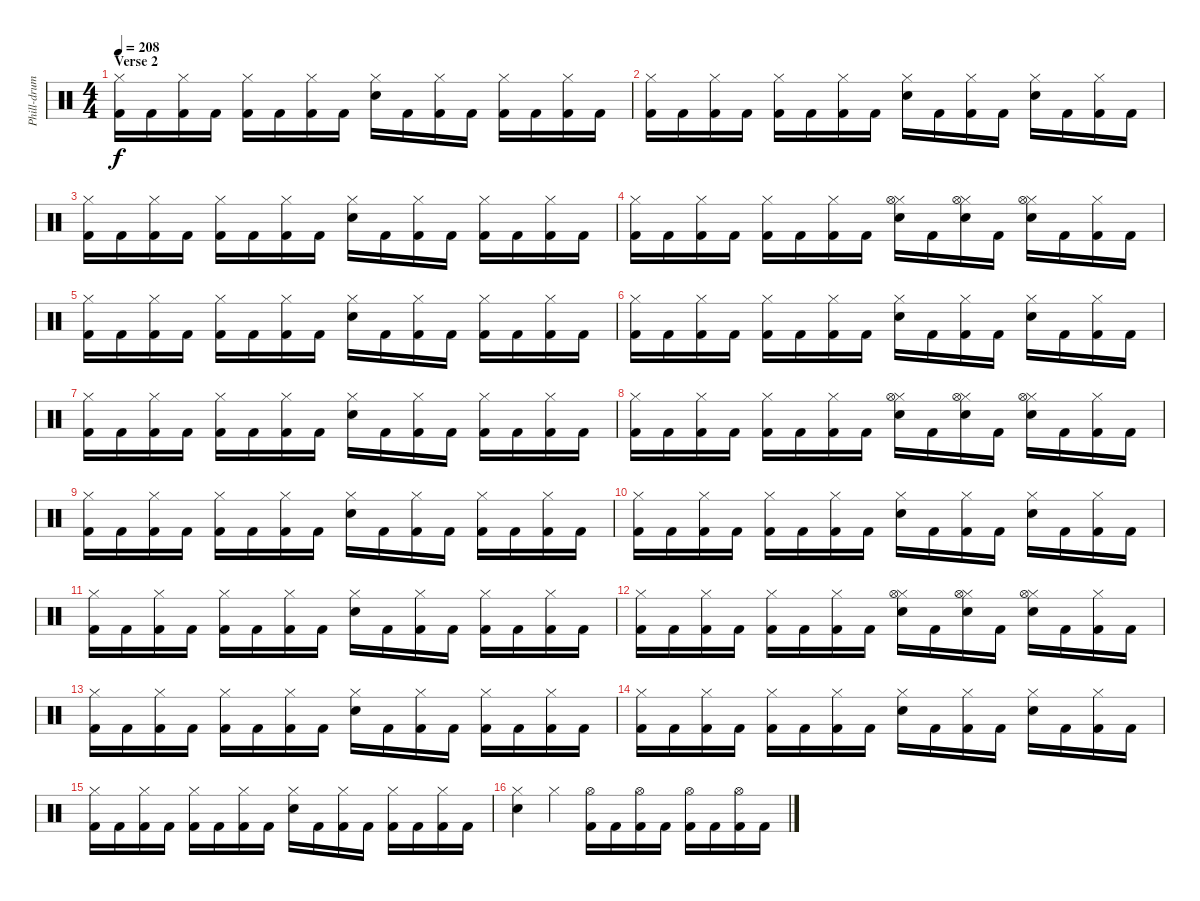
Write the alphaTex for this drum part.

\track ("Phill-drum" "Phill-drum") {instrument percussion}
\staff {score}
\articulation defaults
\ts (4 4)
\section ("" "Verse 2")
\tempo 208
\clef neutral
\ks c
("Hi-Hat (closed)" "Kick (hit) 2").16{dy f} "Kick (hit) 2".16 ("Hi-Hat (closed)" "Kick (hit) 2").16 "Kick (hit) 2".16 ("Hi-Hat (closed)" "Kick (hit) 2").16 "Kick (hit) 2".16 ("Hi-Hat (closed)" "Kick (hit) 2").16 "Kick (hit) 2".16 ("Hi-Hat (closed)" "Electric Snare (hit)").16 "Kick (hit) 2".16 ("Hi-Hat (closed)" "Kick (hit) 2").16 "Kick (hit) 2".16 ("Hi-Hat (closed)" "Kick (hit) 2").16 "Kick (hit) 2".16 ("Hi-Hat (closed)" "Kick (hit) 2").16 "Kick (hit) 2".16 |
("Hi-Hat (closed)" "Kick (hit) 2").16 "Kick (hit) 2".16 ("Hi-Hat (closed)" "Kick (hit) 2").16 "Kick (hit) 2".16 ("Hi-Hat (closed)" "Kick (hit) 2").16 "Kick (hit) 2".16 ("Hi-Hat (closed)" "Kick (hit) 2").16 "Kick (hit) 2".16 ("Hi-Hat (closed)" "Electric Snare (hit)").16 "Kick (hit) 2".16 ("Hi-Hat (closed)" "Kick (hit) 2").16 "Kick (hit) 2".16 ("Hi-Hat (closed)" "Electric Snare (hit)").16 "Kick (hit) 2".16 ("Hi-Hat (closed)" "Kick (hit) 2").16 "Kick (hit) 2".16 |
("Hi-Hat (closed)" "Kick (hit) 2").16 "Kick (hit) 2".16 ("Hi-Hat (closed)" "Kick (hit) 2").16 "Kick (hit) 2".16 ("Hi-Hat (closed)" "Kick (hit) 2").16 "Kick (hit) 2".16 ("Hi-Hat (closed)" "Kick (hit) 2").16 "Kick (hit) 2".16 ("Hi-Hat (closed)" "Electric Snare (hit)").16 "Kick (hit) 2".16 ("Hi-Hat (closed)" "Kick (hit) 2").16 "Kick (hit) 2".16 ("Hi-Hat (closed)" "Kick (hit) 2").16 "Kick (hit) 2".16 ("Hi-Hat (closed)" "Kick (hit) 2").16 "Kick (hit) 2".16 |
("Hi-Hat (closed)" "Kick (hit) 2").16 "Kick (hit) 2".16 ("Hi-Hat (closed)" "Kick (hit) 2").16 "Kick (hit) 2".16 ("Hi-Hat (closed)" "Kick (hit) 2").16 "Kick (hit) 2".16 ("Hi-Hat (closed)" "Kick (hit) 2").16 "Kick (hit) 2".16 ("Hi-Hat (closed)" "Electric Snare (hit)" "Hi-Hat (open)").16 "Kick (hit) 2".16 ("Hi-Hat (closed)" "Electric Snare (hit)" "Hi-Hat (open)").16 "Kick (hit) 2".16 ("Hi-Hat (closed)" "Electric Snare (hit)" "Hi-Hat (open)").16 "Kick (hit) 2".16 ("Hi-Hat (closed)" "Kick (hit) 2").16 "Kick (hit) 2".16 |
("Hi-Hat (closed)" "Kick (hit) 2").16 "Kick (hit) 2".16 ("Hi-Hat (closed)" "Kick (hit) 2").16 "Kick (hit) 2".16 ("Hi-Hat (closed)" "Kick (hit) 2").16 "Kick (hit) 2".16 ("Hi-Hat (closed)" "Kick (hit) 2").16 "Kick (hit) 2".16 ("Hi-Hat (closed)" "Electric Snare (hit)").16 "Kick (hit) 2".16 ("Hi-Hat (closed)" "Kick (hit) 2").16 "Kick (hit) 2".16 ("Hi-Hat (closed)" "Kick (hit) 2").16 "Kick (hit) 2".16 ("Hi-Hat (closed)" "Kick (hit) 2").16 "Kick (hit) 2".16 |
("Hi-Hat (closed)" "Kick (hit) 2").16 "Kick (hit) 2".16 ("Hi-Hat (closed)" "Kick (hit) 2").16 "Kick (hit) 2".16 ("Hi-Hat (closed)" "Kick (hit) 2").16 "Kick (hit) 2".16 ("Hi-Hat (closed)" "Kick (hit) 2").16 "Kick (hit) 2".16 ("Hi-Hat (closed)" "Electric Snare (hit)").16 "Kick (hit) 2".16 ("Hi-Hat (closed)" "Kick (hit) 2").16 "Kick (hit) 2".16 ("Hi-Hat (closed)" "Electric Snare (hit)").16 "Kick (hit) 2".16 ("Hi-Hat (closed)" "Kick (hit) 2").16 "Kick (hit) 2".16 |
("Hi-Hat (closed)" "Kick (hit) 2").16 "Kick (hit) 2".16 ("Hi-Hat (closed)" "Kick (hit) 2").16 "Kick (hit) 2".16 ("Hi-Hat (closed)" "Kick (hit) 2").16 "Kick (hit) 2".16 ("Hi-Hat (closed)" "Kick (hit) 2").16 "Kick (hit) 2".16 ("Hi-Hat (closed)" "Electric Snare (hit)").16 "Kick (hit) 2".16 ("Hi-Hat (closed)" "Kick (hit) 2").16 "Kick (hit) 2".16 ("Hi-Hat (closed)" "Kick (hit) 2").16 "Kick (hit) 2".16 ("Hi-Hat (closed)" "Kick (hit) 2").16 "Kick (hit) 2".16 |
("Hi-Hat (closed)" "Kick (hit) 2").16 "Kick (hit) 2".16 ("Hi-Hat (closed)" "Kick (hit) 2").16 "Kick (hit) 2".16 ("Hi-Hat (closed)" "Kick (hit) 2").16 "Kick (hit) 2".16 ("Hi-Hat (closed)" "Kick (hit) 2").16 "Kick (hit) 2".16 ("Hi-Hat (closed)" "Electric Snare (hit)" "Hi-Hat (open)").16 "Kick (hit) 2".16 ("Hi-Hat (closed)" "Electric Snare (hit)" "Hi-Hat (open)").16 "Kick (hit) 2".16 ("Hi-Hat (closed)" "Electric Snare (hit)" "Hi-Hat (open)").16 "Kick (hit) 2".16 ("Hi-Hat (closed)" "Kick (hit) 2").16 "Kick (hit) 2".16 |
("Hi-Hat (closed)" "Kick (hit) 2").16 "Kick (hit) 2".16 ("Hi-Hat (closed)" "Kick (hit) 2").16 "Kick (hit) 2".16 ("Hi-Hat (closed)" "Kick (hit) 2").16 "Kick (hit) 2".16 ("Hi-Hat (closed)" "Kick (hit) 2").16 "Kick (hit) 2".16 ("Hi-Hat (closed)" "Electric Snare (hit)").16 "Kick (hit) 2".16 ("Hi-Hat (closed)" "Kick (hit) 2").16 "Kick (hit) 2".16 ("Hi-Hat (closed)" "Kick (hit) 2").16 "Kick (hit) 2".16 ("Hi-Hat (closed)" "Kick (hit) 2").16 "Kick (hit) 2".16 |
("Hi-Hat (closed)" "Kick (hit) 2").16 "Kick (hit) 2".16 ("Hi-Hat (closed)" "Kick (hit) 2").16 "Kick (hit) 2".16 ("Hi-Hat (closed)" "Kick (hit) 2").16 "Kick (hit) 2".16 ("Hi-Hat (closed)" "Kick (hit) 2").16 "Kick (hit) 2".16 ("Hi-Hat (closed)" "Electric Snare (hit)").16 "Kick (hit) 2".16 ("Hi-Hat (closed)" "Kick (hit) 2").16 "Kick (hit) 2".16 ("Hi-Hat (closed)" "Electric Snare (hit)").16 "Kick (hit) 2".16 ("Hi-Hat (closed)" "Kick (hit) 2").16 "Kick (hit) 2".16 |
("Hi-Hat (closed)" "Kick (hit) 2").16 "Kick (hit) 2".16 ("Hi-Hat (closed)" "Kick (hit) 2").16 "Kick (hit) 2".16 ("Hi-Hat (closed)" "Kick (hit) 2").16 "Kick (hit) 2".16 ("Hi-Hat (closed)" "Kick (hit) 2").16 "Kick (hit) 2".16 ("Hi-Hat (closed)" "Electric Snare (hit)").16 "Kick (hit) 2".16 ("Hi-Hat (closed)" "Kick (hit) 2").16 "Kick (hit) 2".16 ("Hi-Hat (closed)" "Kick (hit) 2").16 "Kick (hit) 2".16 ("Hi-Hat (closed)" "Kick (hit) 2").16 "Kick (hit) 2".16 |
("Hi-Hat (closed)" "Kick (hit) 2").16 "Kick (hit) 2".16 ("Hi-Hat (closed)" "Kick (hit) 2").16 "Kick (hit) 2".16 ("Hi-Hat (closed)" "Kick (hit) 2").16 "Kick (hit) 2".16 ("Hi-Hat (closed)" "Kick (hit) 2").16 "Kick (hit) 2".16 ("Hi-Hat (closed)" "Electric Snare (hit)" "Hi-Hat (open)").16 "Kick (hit) 2".16 ("Hi-Hat (closed)" "Electric Snare (hit)" "Hi-Hat (open)").16 "Kick (hit) 2".16 ("Hi-Hat (closed)" "Electric Snare (hit)" "Hi-Hat (open)").16 "Kick (hit) 2".16 ("Hi-Hat (closed)" "Kick (hit) 2").16 "Kick (hit) 2".16 |
("Hi-Hat (closed)" "Kick (hit) 2").16 "Kick (hit) 2".16 ("Hi-Hat (closed)" "Kick (hit) 2").16 "Kick (hit) 2".16 ("Hi-Hat (closed)" "Kick (hit) 2").16 "Kick (hit) 2".16 ("Hi-Hat (closed)" "Kick (hit) 2").16 "Kick (hit) 2".16 ("Hi-Hat (closed)" "Electric Snare (hit)").16 "Kick (hit) 2".16 ("Hi-Hat (closed)" "Kick (hit) 2").16 "Kick (hit) 2".16 ("Hi-Hat (closed)" "Kick (hit) 2").16 "Kick (hit) 2".16 ("Hi-Hat (closed)" "Kick (hit) 2").16 "Kick (hit) 2".16 |
("Hi-Hat (closed)" "Kick (hit) 2").16 "Kick (hit) 2".16 ("Hi-Hat (closed)" "Kick (hit) 2").16 "Kick (hit) 2".16 ("Hi-Hat (closed)" "Kick (hit) 2").16 "Kick (hit) 2".16 ("Hi-Hat (closed)" "Kick (hit) 2").16 "Kick (hit) 2".16 ("Hi-Hat (closed)" "Electric Snare (hit)").16 "Kick (hit) 2".16 ("Hi-Hat (closed)" "Kick (hit) 2").16 "Kick (hit) 2".16 ("Hi-Hat (closed)" "Electric Snare (hit)").16 "Kick (hit) 2".16 ("Hi-Hat (closed)" "Kick (hit) 2").16 "Kick (hit) 2".16 |
("Hi-Hat (closed)" "Kick (hit) 2").16 "Kick (hit) 2".16 ("Hi-Hat (closed)" "Kick (hit) 2").16 "Kick (hit) 2".16 ("Hi-Hat (closed)" "Kick (hit) 2").16 "Kick (hit) 2".16 ("Hi-Hat (closed)" "Kick (hit) 2").16 "Kick (hit) 2".16 ("Hi-Hat (closed)" "Electric Snare (hit)").16 "Kick (hit) 2".16 ("Hi-Hat (closed)" "Kick (hit) 2").16 "Kick (hit) 2".16 ("Hi-Hat (closed)" "Kick (hit) 2").16 "Kick (hit) 2".16 ("Hi-Hat (closed)" "Kick (hit) 2").16 "Kick (hit) 2".16 |
("Hi-Hat (closed)" "Electric Snare (hit)").4 "Hi-Hat (closed)".4 ("Hi-Hat (open)" "Kick (hit) 2").16 "Kick (hit) 2".16 ("Hi-Hat (open)" "Kick (hit) 2").16 "Kick (hit) 2".16 ("Hi-Hat (open)" "Kick (hit) 2").16 "Kick (hit) 2".16 ("Hi-Hat (open)" "Kick (hit) 2").16 "Kick (hit) 2".16
